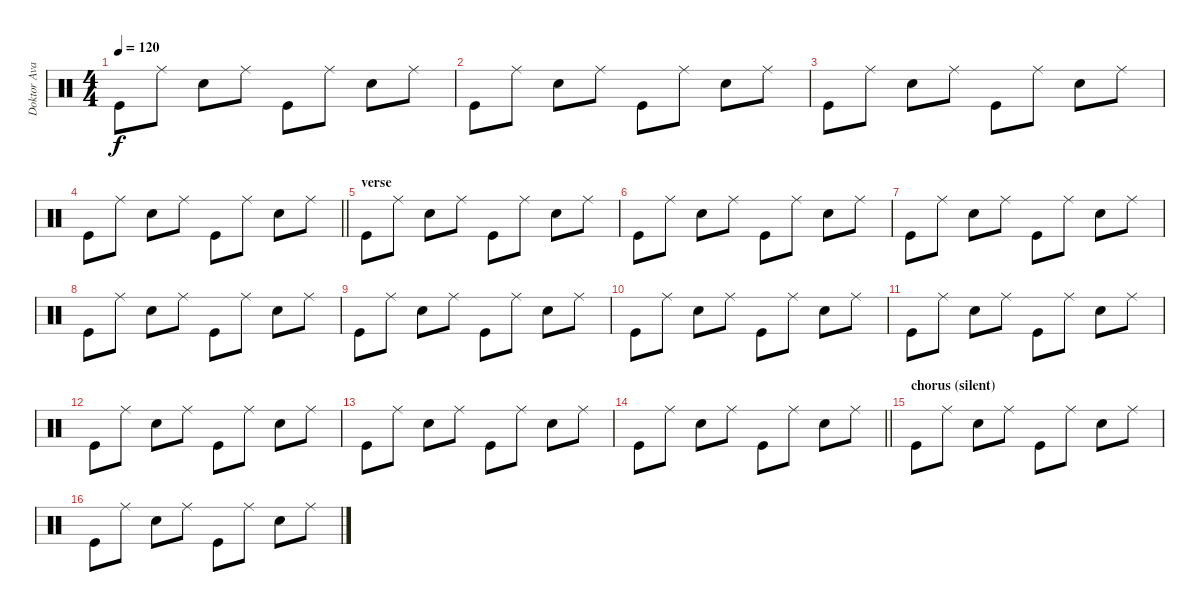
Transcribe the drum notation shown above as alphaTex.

\track ("Doktor Avalanche" "Doktor Ava") {instrument percussion}
\staff {score}
\articulation defaults
\ts (4 4)
\tempo 120
\clef neutral
\ks c "Kick (hit)".8{dy f} "Ride (middle)".8 "Snare (hit) 2".8 "Ride (middle)".8 "Kick (hit)".8 "Ride (middle)".8 "Snare (hit) 2".8 "Ride (middle)".8
|
"Kick (hit)".8 "Ride (middle)".8 "Snare (hit) 2".8 "Ride (middle)".8 "Kick (hit)".8 "Ride (middle)".8 "Snare (hit) 2".8 "Ride (middle)".8 |
"Kick (hit)".8 "Ride (middle)".8 "Snare (hit) 2".8 "Ride (middle)".8 "Kick (hit)".8 "Ride (middle)".8 "Snare (hit) 2".8 "Ride (middle)".8 |
\barLineRight lightlight "Kick (hit)".8 "Ride (middle)".8 "Snare (hit) 2".8 "Ride (middle)".8 "Kick (hit)".8 "Ride (middle)".8 "Snare (hit) 2".8 "Ride (middle)".8
|
\section ("" "verse")
"Kick (hit)".8 "Ride (middle)".8 "Snare (hit) 2".8 "Ride (middle)".8 "Kick (hit)".8 "Ride (middle)".8 "Snare (hit) 2".8 "Ride (middle)".8 |
"Kick (hit)".8 "Ride (middle)".8 "Snare (hit) 2".8 "Ride (middle)".8 "Kick (hit)".8 "Ride (middle)".8 "Snare (hit) 2".8 "Ride (middle)".8 |
"Kick (hit)".8 "Ride (middle)".8 "Snare (hit) 2".8 "Ride (middle)".8 "Kick (hit)".8 "Ride (middle)".8 "Snare (hit) 2".8 "Ride (middle)".8 |
"Kick (hit)".8 "Ride (middle)".8 "Snare (hit) 2".8 "Ride (middle)".8 "Kick (hit)".8 "Ride (middle)".8 "Snare (hit) 2".8 "Ride (middle)".8 |
"Kick (hit)".8 "Ride (middle)".8 "Snare (hit) 2".8 "Ride (middle)".8 "Kick (hit)".8 "Ride (middle)".8 "Snare (hit) 2".8 "Ride (middle)".8 |
"Kick (hit)".8 "Ride (middle)".8 "Snare (hit) 2".8 "Ride (middle)".8 "Kick (hit)".8 "Ride (middle)".8 "Snare (hit) 2".8 "Ride (middle)".8 |
"Kick (hit)".8 "Ride (middle)".8 "Snare (hit) 2".8 "Ride (middle)".8 "Kick (hit)".8 "Ride (middle)".8 "Snare (hit) 2".8 "Ride (middle)".8 |
"Kick (hit)".8 "Ride (middle)".8 "Snare (hit) 2".8 "Ride (middle)".8 "Kick (hit)".8 "Ride (middle)".8 "Snare (hit) 2".8 "Ride (middle)".8 |
"Kick (hit)".8 "Ride (middle)".8 "Snare (hit) 2".8 "Ride (middle)".8 "Kick (hit)".8 "Ride (middle)".8 "Snare (hit) 2".8 "Ride (middle)".8 |
\barLineRight lightlight "Kick (hit)".8 "Ride (middle)".8 "Snare (hit) 2".8 "Ride (middle)".8 "Kick (hit)".8 "Ride (middle)".8 "Snare (hit) 2".8 "Ride (middle)".8
|
\section ("" "chorus (silent)")
"Kick (hit)".8 "Ride (middle)".8 "Snare (hit) 2".8 "Ride (middle)".8 "Kick (hit)".8 "Ride (middle)".8 "Snare (hit) 2".8 "Ride (middle)".8 |
"Kick (hit)".8 "Ride (middle)".8 "Snare (hit) 2".8 "Ride (middle)".8 "Kick (hit)".8 "Ride (middle)".8 "Snare (hit) 2".8 "Ride (middle)".8
